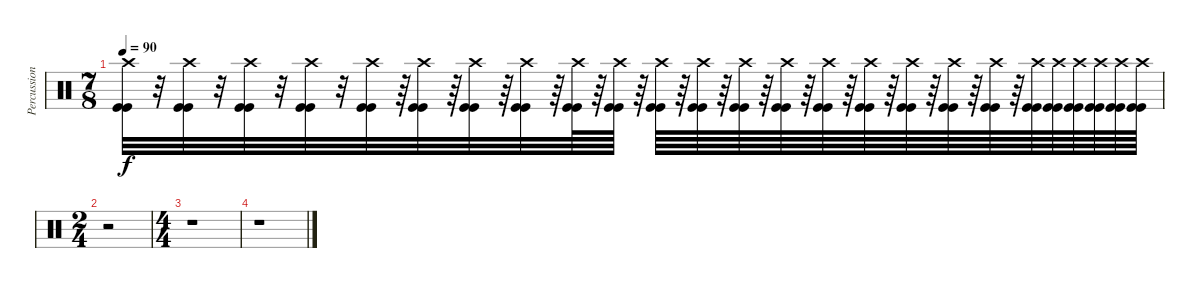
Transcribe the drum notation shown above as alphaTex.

\track ("Percussions" "Percussion") {instrument percussion}
\staff {score}
\articulation defaults
\ts (7 8)
\tempo 90
\clef neutral
\ks c
("Crash high (hit)" "Kick (hit)" "Kick (hit)").32{dy f} r.32 ("Crash high (hit)" "Kick (hit)" "Kick (hit)").32 r.32 ("Crash high (hit)" "Kick (hit)" "Kick (hit)").32 r.32 ("Crash high (hit)" "Kick (hit)" "Kick (hit)").32 r.32 ("Crash high (hit)" "Kick (hit)" "Kick (hit)").32 r.64 ("Crash high (hit)" "Kick (hit)" "Kick (hit)").32 r.64 ("Crash high (hit)" "Kick (hit)" "Kick (hit)").32 r.64 ("Crash high (hit)" "Kick (hit)" "Kick (hit)").32 r.64 ("Crash high (hit)" "Kick (hit)" "Kick (hit)").64 r.64 ("Crash high (hit)" "Kick (hit)" "Kick (hit)").64 r.64 ("Crash high (hit)" "Kick (hit)" "Kick (hit)").64 r.64 ("Crash high (hit)" "Kick (hit)" "Kick (hit)").64 r.64 ("Crash high (hit)" "Kick (hit)" "Kick (hit)").64 r.64 ("Crash high (hit)" "Kick (hit)" "Kick (hit)").64 r.64 ("Crash high (hit)" "Kick (hit)" "Kick (hit)").64 r.64 ("Crash high (hit)" "Kick (hit)" "Kick (hit)").64 r.64 ("Crash high (hit)" "Kick (hit)" "Kick (hit)").64 r.64 ("Crash high (hit)" "Kick (hit)" "Kick (hit)").64 r.64 ("Crash high (hit)" "Kick (hit)" "Kick (hit)").64 r.64 ("Crash high (hit)" "Kick (hit)" "Kick (hit)").64 ("Crash high (hit)" "Kick (hit)" "Kick (hit)").64 ("Crash high (hit)" "Kick (hit)" "Kick (hit)").64 ("Crash high (hit)" "Kick (hit)" "Kick (hit)").64 ("Crash high (hit)" "Kick (hit)" "Kick (hit)").64 ("Crash high (hit)" "Kick (hit)" "Kick (hit)").64 |
\ts (2 4)
r.2 |
\ts (4 4)
r.1 |
r.1
